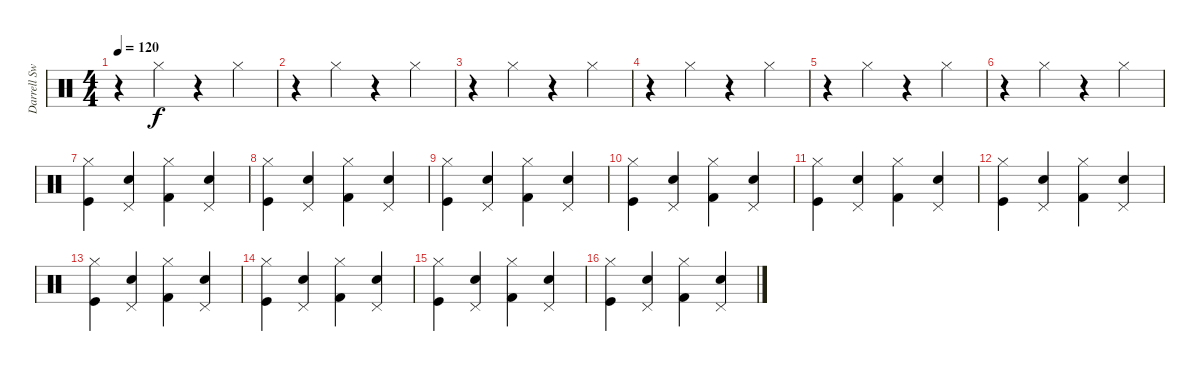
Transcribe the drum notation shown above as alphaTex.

\track ("Darrell Sweet (drums)" "Darrell Sw") {instrument percussion}
\staff {score}
\articulation defaults
\ts (4 4)
\tempo 120
\clef neutral
\ks c
r.4{dy f} "Hi-Hat (closed)".4 r.4 "Hi-Hat (closed)".4 |
r.4 "Hi-Hat (closed)".4 r.4 "Hi-Hat (closed)".4 |
r.4 "Hi-Hat (closed)".4 r.4 "Hi-Hat (closed)".4 |
r.4 "Hi-Hat (closed)".4 r.4 "Hi-Hat (closed)".4 |
r.4 "Hi-Hat (closed)".4 r.4 "Hi-Hat (closed)".4 |
r.4 "Hi-Hat (closed)".4 r.4 "Hi-Hat (closed)".4 |
("Hi-Hat (closed)" "Kick (hit)").4 ("Pedal Hi-Hat (hit)" "Snare (hit) 2").4 ("Hi-Hat (closed)" "Kick (hit) 2").4 ("Pedal Hi-Hat (hit)" "Snare (hit) 2").4 |
("Hi-Hat (closed)" "Kick (hit)").4 ("Pedal Hi-Hat (hit)" "Snare (hit) 2").4 ("Hi-Hat (closed)" "Kick (hit) 2").4 ("Pedal Hi-Hat (hit)" "Snare (hit) 2").4 |
("Hi-Hat (closed)" "Kick (hit)").4 ("Pedal Hi-Hat (hit)" "Snare (hit) 2").4 ("Hi-Hat (closed)" "Kick (hit) 2").4 ("Pedal Hi-Hat (hit)" "Snare (hit) 2").4 |
("Hi-Hat (closed)" "Kick (hit)").4 ("Pedal Hi-Hat (hit)" "Snare (hit) 2").4 ("Hi-Hat (closed)" "Kick (hit) 2").4 ("Pedal Hi-Hat (hit)" "Snare (hit) 2").4 |
("Hi-Hat (closed)" "Kick (hit)").4 ("Pedal Hi-Hat (hit)" "Snare (hit) 2").4 ("Hi-Hat (closed)" "Kick (hit) 2").4 ("Pedal Hi-Hat (hit)" "Snare (hit) 2").4 |
("Hi-Hat (closed)" "Kick (hit)").4 ("Pedal Hi-Hat (hit)" "Snare (hit) 2").4 ("Hi-Hat (closed)" "Kick (hit) 2").4 ("Pedal Hi-Hat (hit)" "Snare (hit) 2").4 |
("Hi-Hat (closed)" "Kick (hit)").4 ("Pedal Hi-Hat (hit)" "Snare (hit) 2").4 ("Hi-Hat (closed)" "Kick (hit) 2").4 ("Pedal Hi-Hat (hit)" "Snare (hit) 2").4 |
("Hi-Hat (closed)" "Kick (hit)").4 ("Pedal Hi-Hat (hit)" "Snare (hit) 2").4 ("Hi-Hat (closed)" "Kick (hit) 2").4 ("Pedal Hi-Hat (hit)" "Snare (hit) 2").4 |
("Hi-Hat (closed)" "Kick (hit)").4 ("Pedal Hi-Hat (hit)" "Snare (hit) 2").4 ("Hi-Hat (closed)" "Kick (hit) 2").4 ("Pedal Hi-Hat (hit)" "Snare (hit) 2").4 |
("Hi-Hat (closed)" "Kick (hit)").4 ("Pedal Hi-Hat (hit)" "Snare (hit) 2").4 ("Hi-Hat (closed)" "Kick (hit) 2").4 ("Pedal Hi-Hat (hit)" "Snare (hit) 2").4
